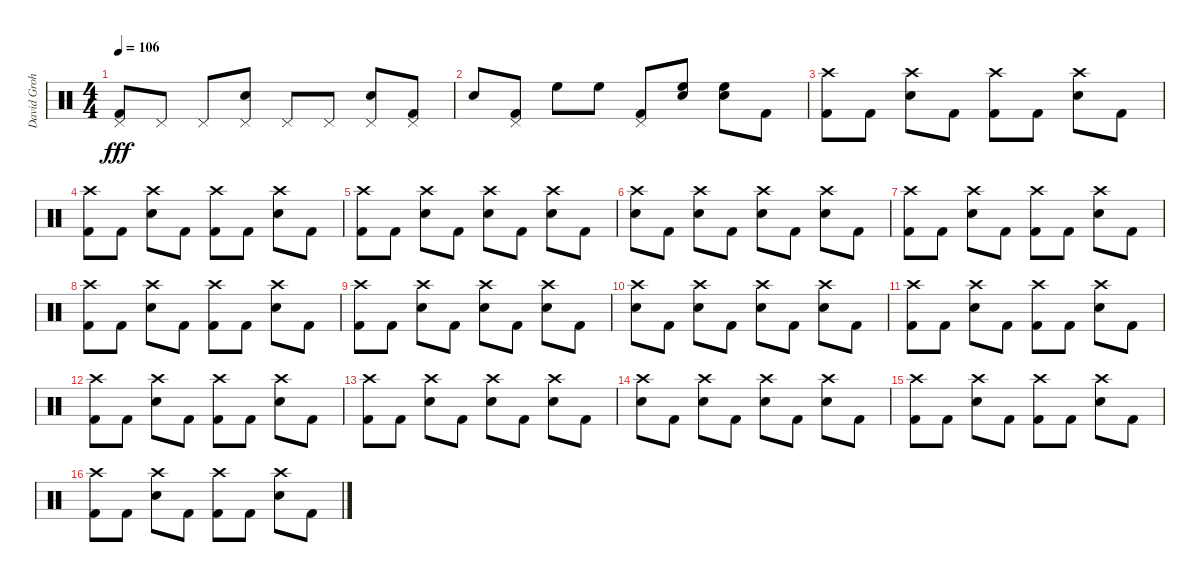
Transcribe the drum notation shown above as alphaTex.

\track ("David Grohl 2 Crash Style !!" "David Groh") {instrument percussion}
\staff {score}
\articulation defaults
\ts (4 4)
\tempo 106
\clef neutral
\ks c
("Pedal Hi-Hat (hit)" "Kick (hit) 2").8{dy fff} "Pedal Hi-Hat (hit)".8 "Pedal Hi-Hat (hit)".8 ("Pedal Hi-Hat (hit)" "Snare (hit) 2").8 "Pedal Hi-Hat (hit)".8 "Pedal Hi-Hat (hit)".8 ("Pedal Hi-Hat (hit)" "Snare (hit) 2").8 ("Pedal Hi-Hat (hit)" "Kick (hit) 2").8 |
"Snare (hit) 2".8 ("Pedal Hi-Hat (hit)" "Kick (hit) 2").8 "High Floor Tom (hit)".8 "High Floor Tom (hit)".8 ("Pedal Hi-Hat (hit)" "Kick (hit) 2").8 ("High Floor Tom (hit)" "Snare (hit) 2").8 ("High Floor Tom (hit)" "Snare (hit) 2").8 "Kick (hit) 2".8 |
("Crash high (hit)" "Kick (hit) 2").8 "Kick (hit) 2".8 ("Crash high (hit)" "Snare (hit) 2").8 "Kick (hit) 2".8 ("Crash high (hit)" "Kick (hit) 2").8 "Kick (hit) 2".8 ("Crash high (hit)" "Snare (hit) 2").8 "Kick (hit) 2".8 |
("Crash high (hit)" "Kick (hit) 2").8 "Kick (hit) 2".8 ("Crash high (hit)" "Snare (hit) 2").8 "Kick (hit) 2".8 ("Crash high (hit)" "Kick (hit) 2").8 "Kick (hit) 2".8 ("Crash high (hit)" "Snare (hit) 2").8 "Kick (hit) 2".8 |
("Crash high (hit)" "Kick (hit) 2").8 "Kick (hit) 2".8 ("Crash high (hit)" "Snare (hit) 2").8 "Kick (hit) 2".8 ("Crash high (hit)" "Snare (hit) 2").8 "Kick (hit) 2".8 ("Crash high (hit)" "Snare (hit) 2").8 "Kick (hit) 2".8 |
("Crash high (hit)" "Snare (hit) 2").8 "Kick (hit) 2".8 ("Crash high (hit)" "Snare (hit) 2").8 "Kick (hit) 2".8 ("Crash high (hit)" "Snare (hit) 2").8 "Kick (hit) 2".8 ("Crash high (hit)" "Snare (hit) 2").8 "Kick (hit) 2".8 |
("Crash high (hit)" "Kick (hit) 2").8 "Kick (hit) 2".8 ("Crash high (hit)" "Snare (hit) 2").8 "Kick (hit) 2".8 ("Crash high (hit)" "Kick (hit) 2").8 "Kick (hit) 2".8 ("Crash high (hit)" "Snare (hit) 2").8 "Kick (hit) 2".8 |
("Crash high (hit)" "Kick (hit) 2").8 "Kick (hit) 2".8 ("Crash high (hit)" "Snare (hit) 2").8 "Kick (hit) 2".8 ("Crash high (hit)" "Kick (hit) 2").8 "Kick (hit) 2".8 ("Crash high (hit)" "Snare (hit) 2").8 "Kick (hit) 2".8 |
("Crash high (hit)" "Kick (hit) 2").8 "Kick (hit) 2".8 ("Crash high (hit)" "Snare (hit) 2").8 "Kick (hit) 2".8 ("Crash high (hit)" "Snare (hit) 2").8 "Kick (hit) 2".8 ("Crash high (hit)" "Snare (hit) 2").8 "Kick (hit) 2".8 |
("Crash high (hit)" "Snare (hit) 2").8 "Kick (hit) 2".8 ("Crash high (hit)" "Snare (hit) 2").8 "Kick (hit) 2".8 ("Crash high (hit)" "Snare (hit) 2").8 "Kick (hit) 2".8 ("Crash high (hit)" "Snare (hit) 2").8 "Kick (hit) 2".8 |
("Crash high (hit)" "Kick (hit) 2").8 "Kick (hit) 2".8 ("Crash high (hit)" "Snare (hit) 2").8 "Kick (hit) 2".8 ("Crash high (hit)" "Kick (hit) 2").8 "Kick (hit) 2".8 ("Crash high (hit)" "Snare (hit) 2").8 "Kick (hit) 2".8 |
("Crash high (hit)" "Kick (hit) 2").8 "Kick (hit) 2".8 ("Crash high (hit)" "Snare (hit) 2").8 "Kick (hit) 2".8 ("Crash high (hit)" "Kick (hit) 2").8 "Kick (hit) 2".8 ("Crash high (hit)" "Snare (hit) 2").8 "Kick (hit) 2".8 |
("Crash high (hit)" "Kick (hit) 2").8 "Kick (hit) 2".8 ("Crash high (hit)" "Snare (hit) 2").8 "Kick (hit) 2".8 ("Crash high (hit)" "Snare (hit) 2").8 "Kick (hit) 2".8 ("Crash high (hit)" "Snare (hit) 2").8 "Kick (hit) 2".8 |
("Crash high (hit)" "Snare (hit) 2").8 "Kick (hit) 2".8 ("Crash high (hit)" "Snare (hit) 2").8 "Kick (hit) 2".8 ("Crash high (hit)" "Snare (hit) 2").8 "Kick (hit) 2".8 ("Crash high (hit)" "Snare (hit) 2").8 "Kick (hit) 2".8 |
("Crash high (hit)" "Kick (hit) 2").8 "Kick (hit) 2".8 ("Crash high (hit)" "Snare (hit) 2").8 "Kick (hit) 2".8 ("Crash high (hit)" "Kick (hit) 2").8 "Kick (hit) 2".8 ("Crash high (hit)" "Snare (hit) 2").8 "Kick (hit) 2".8 |
("Crash high (hit)" "Kick (hit) 2").8 "Kick (hit) 2".8 ("Crash high (hit)" "Snare (hit) 2").8 "Kick (hit) 2".8 ("Crash high (hit)" "Kick (hit) 2").8 "Kick (hit) 2".8 ("Crash high (hit)" "Snare (hit) 2").8 "Kick (hit) 2".8
